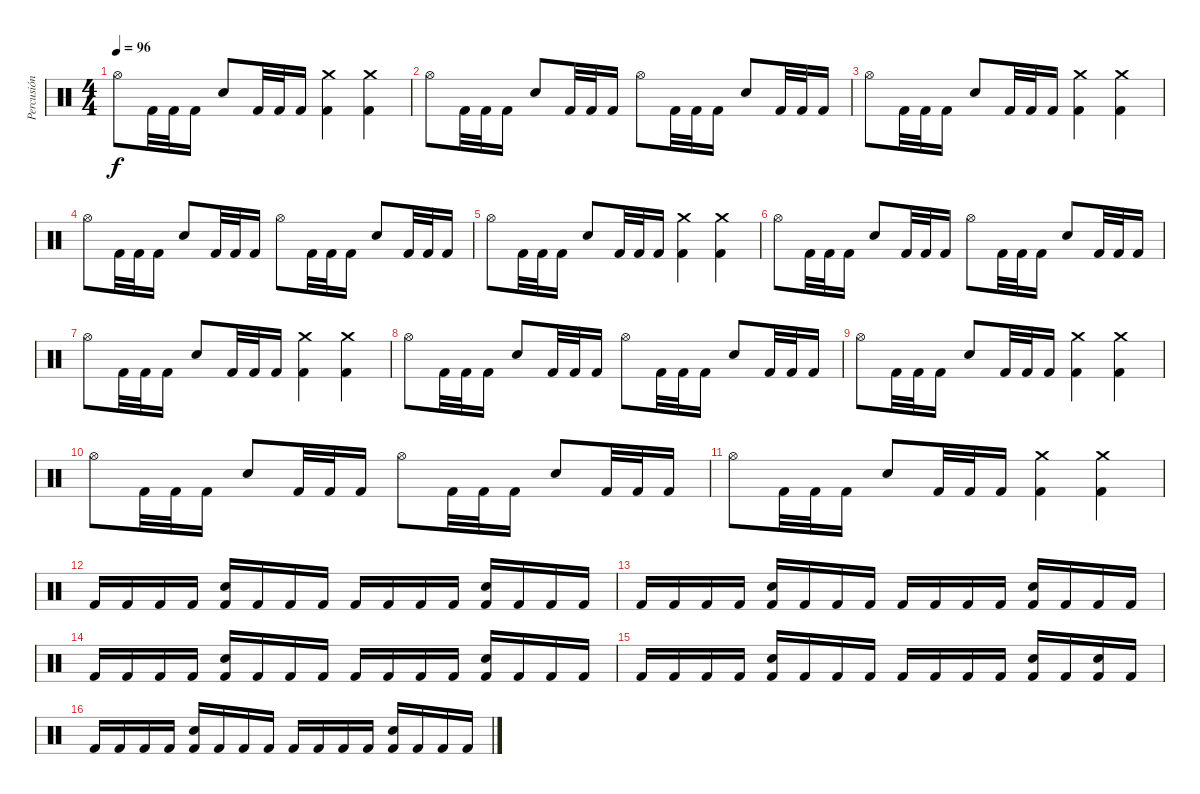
\track ("Percusión" "Percusión") {instrument percussion}
\staff {score}
\articulation defaults
\ts (4 4)
\tempo 96
\clef neutral
\ks c "Hi-Hat (open)".8{dy f} "Kick (hit) 2".32 "Kick (hit) 2".32 "Kick (hit) 2".16 "Snare (hit) 2".8 "Kick (hit) 2".32 "Kick (hit) 2".32 "Kick (hit) 2".16
("Kick (hit) 2" "Crash medium (hit)").4 ("Kick (hit) 2" "Crash medium (hit)").4 |
"Hi-Hat (open)".8 "Kick (hit) 2".32 "Kick (hit) 2".32 "Kick (hit) 2".16 "Snare (hit) 2".8 "Kick (hit) 2".32 "Kick (hit) 2".32 "Kick (hit) 2".16 "Hi-Hat (open)".8 "Kick (hit) 2".32 "Kick (hit) 2".32 "Kick (hit) 2".16 "Snare (hit) 2".8 "Kick (hit) 2".32 "Kick (hit) 2".32 "Kick (hit) 2".16 |
"Hi-Hat (open)".8 "Kick (hit) 2".32 "Kick (hit) 2".32 "Kick (hit) 2".16 "Snare (hit) 2".8 "Kick (hit) 2".32 "Kick (hit) 2".32 "Kick (hit) 2".16 ("Kick (hit) 2" "Crash medium (hit)").4 ("Kick (hit) 2" "Crash medium (hit)").4 |
"Hi-Hat (open)".8 "Kick (hit) 2".32 "Kick (hit) 2".32 "Kick (hit) 2".16 "Snare (hit) 2".8 "Kick (hit) 2".32 "Kick (hit) 2".32 "Kick (hit) 2".16 "Hi-Hat (open)".8 "Kick (hit) 2".32 "Kick (hit) 2".32 "Kick (hit) 2".16 "Snare (hit) 2".8 "Kick (hit) 2".32 "Kick (hit) 2".32 "Kick (hit) 2".16 |
"Hi-Hat (open)".8 "Kick (hit) 2".32 "Kick (hit) 2".32 "Kick (hit) 2".16 "Snare (hit) 2".8 "Kick (hit) 2".32 "Kick (hit) 2".32 "Kick (hit) 2".16 ("Kick (hit) 2" "Crash medium (hit)").4 ("Kick (hit) 2" "Crash medium (hit)").4 |
"Hi-Hat (open)".8 "Kick (hit) 2".32 "Kick (hit) 2".32 "Kick (hit) 2".16 "Snare (hit) 2".8 "Kick (hit) 2".32 "Kick (hit) 2".32 "Kick (hit) 2".16 "Hi-Hat (open)".8 "Kick (hit) 2".32 "Kick (hit) 2".32 "Kick (hit) 2".16 "Snare (hit) 2".8 "Kick (hit) 2".32 "Kick (hit) 2".32 "Kick (hit) 2".16 |
"Hi-Hat (open)".8 "Kick (hit) 2".32 "Kick (hit) 2".32 "Kick (hit) 2".16 "Snare (hit) 2".8 "Kick (hit) 2".32 "Kick (hit) 2".32 "Kick (hit) 2".16 ("Kick (hit) 2" "Crash medium (hit)").4 ("Kick (hit) 2" "Crash medium (hit)").4 |
"Hi-Hat (open)".8 "Kick (hit) 2".32 "Kick (hit) 2".32 "Kick (hit) 2".16 "Snare (hit) 2".8 "Kick (hit) 2".32 "Kick (hit) 2".32 "Kick (hit) 2".16 "Hi-Hat (open)".8 "Kick (hit) 2".32 "Kick (hit) 2".32 "Kick (hit) 2".16 "Snare (hit) 2".8 "Kick (hit) 2".32 "Kick (hit) 2".32 "Kick (hit) 2".16 |
"Hi-Hat (open)".8 "Kick (hit) 2".32 "Kick (hit) 2".32 "Kick (hit) 2".16 "Snare (hit) 2".8 "Kick (hit) 2".32 "Kick (hit) 2".32 "Kick (hit) 2".16 ("Kick (hit) 2" "Crash medium (hit)").4 ("Kick (hit) 2" "Crash medium (hit)").4 |
"Hi-Hat (open)".8 "Kick (hit) 2".32 "Kick (hit) 2".32 "Kick (hit) 2".16 "Snare (hit) 2".8 "Kick (hit) 2".32 "Kick (hit) 2".32 "Kick (hit) 2".16 "Hi-Hat (open)".8 "Kick (hit) 2".32 "Kick (hit) 2".32 "Kick (hit) 2".16 "Snare (hit) 2".8 "Kick (hit) 2".32 "Kick (hit) 2".32 "Kick (hit) 2".16 |
"Hi-Hat (open)".8 "Kick (hit) 2".32 "Kick (hit) 2".32 "Kick (hit) 2".16 "Snare (hit) 2".8 "Kick (hit) 2".32 "Kick (hit) 2".32 "Kick (hit) 2".16 ("Kick (hit) 2" "Crash medium (hit)").4 ("Kick (hit) 2" "Crash medium (hit)").4 |
"Kick (hit) 2".16 "Kick (hit) 2".16 "Kick (hit) 2".16 "Kick (hit) 2".16 ("Kick (hit) 2" "Snare (hit) 2").16 "Kick (hit) 2".16 "Kick (hit) 2".16 "Kick (hit) 2".16 "Kick (hit) 2".16 "Kick (hit) 2".16 "Kick (hit) 2".16 "Kick (hit) 2".16 ("Kick (hit) 2" "Snare (hit) 2").16 "Kick (hit) 2".16 "Kick (hit) 2".16 "Kick (hit) 2".16 |
"Kick (hit) 2".16 "Kick (hit) 2".16 "Kick (hit) 2".16 "Kick (hit) 2".16 ("Kick (hit) 2" "Snare (hit) 2").16 "Kick (hit) 2".16 "Kick (hit) 2".16 "Kick (hit) 2".16 "Kick (hit) 2".16 "Kick (hit) 2".16 "Kick (hit) 2".16 "Kick (hit) 2".16 ("Kick (hit) 2" "Snare (hit) 2").16 "Kick (hit) 2".16 "Kick (hit) 2".16 "Kick (hit) 2".16 |
"Kick (hit) 2".16 "Kick (hit) 2".16 "Kick (hit) 2".16 "Kick (hit) 2".16 ("Kick (hit) 2" "Snare (hit) 2").16 "Kick (hit) 2".16 "Kick (hit) 2".16 "Kick (hit) 2".16 "Kick (hit) 2".16 "Kick (hit) 2".16 "Kick (hit) 2".16 "Kick (hit) 2".16 ("Kick (hit) 2" "Snare (hit) 2").16 "Kick (hit) 2".16 "Kick (hit) 2".16 "Kick (hit) 2".16 |
"Kick (hit) 2".16 "Kick (hit) 2".16 "Kick (hit) 2".16 "Kick (hit) 2".16 ("Kick (hit) 2" "Snare (hit) 2").16 "Kick (hit) 2".16 "Kick (hit) 2".16 "Kick (hit) 2".16 "Kick (hit) 2".16 "Kick (hit) 2".16 "Kick (hit) 2".16 "Kick (hit) 2".16 ("Kick (hit) 2" "Snare (hit) 2").16 "Kick (hit) 2".16 ("Kick (hit) 2" "Snare (hit) 2").16 "Kick (hit) 2".16 |
"Kick (hit) 2".16 "Kick (hit) 2".16 "Kick (hit) 2".16 "Kick (hit) 2".16 ("Kick (hit) 2" "Snare (hit) 2").16 "Kick (hit) 2".16 "Kick (hit) 2".16 "Kick (hit) 2".16 "Kick (hit) 2".16 "Kick (hit) 2".16 "Kick (hit) 2".16 "Kick (hit) 2".16 ("Kick (hit) 2" "Snare (hit) 2").16 "Kick (hit) 2".16 "Kick (hit) 2".16 "Kick (hit) 2".16
